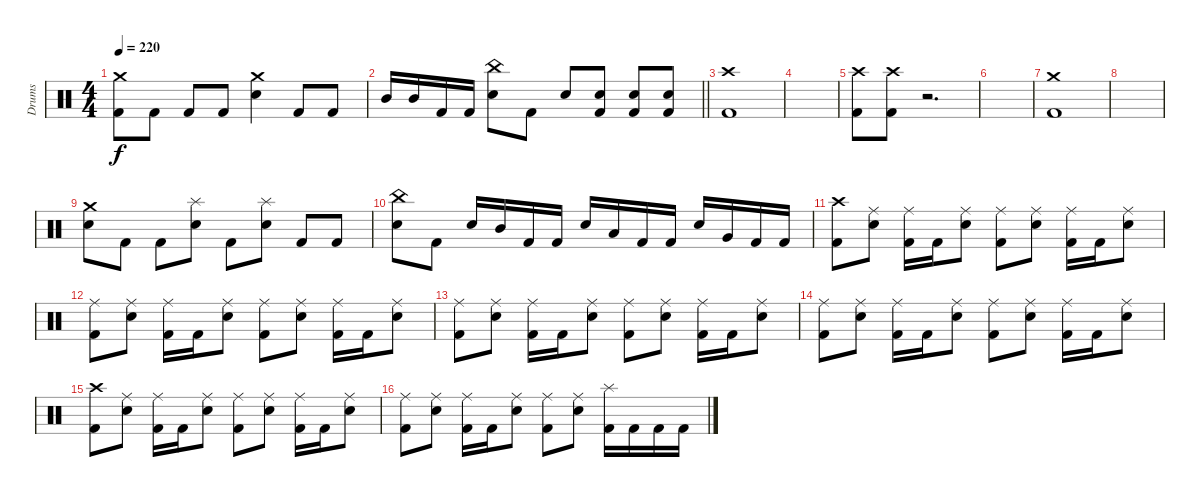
\track ("Drums" "Drums") {instrument percussion}
\staff {score}
\articulation defaults
\ts (4 4)
\tempo 220
\clef neutral
\ks c
("Crash medium (hit)" "Kick (hit) 2").8{dy f} "Kick (hit) 2".8 "Kick (hit) 2".8 "Kick (hit) 2".8 ("Crash medium (hit)" "Snare (hit) 2").4 "Kick (hit) 2".8 "Kick (hit) 2".8 |
\barLineRight lightlight "Mid Tom (hit)".16 "Mid Tom (hit)".16 "Kick (hit) 2".16 "Kick (hit) 2".16
("China (hit)" "Snare (hit) 2").8 "Kick (hit) 2".8 "Snare (hit) 2".8 ("Snare (hit) 2" "Kick (hit) 2").8 ("Snare (hit) 2" "Kick (hit) 2").8 ("Snare (hit) 2" "Kick (hit) 2").8 |
("Crash high (hit)" "Kick (hit) 2").1 |
|
("Crash high (hit)" "Kick (hit) 2").8 ("Crash high (hit)" "Kick (hit) 2").8 r.2{d} |
|
("Crash medium (hit)" "Kick (hit) 2").1 |
|
("Crash medium (hit)" "Snare (hit) 2").8 "Kick (hit) 2".8 "Kick (hit) 2".8 ("Splash (hit)" "Snare (hit) 2").8 "Kick (hit) 2".8 ("Splash (hit)" "Snare (hit) 2").8 "Kick (hit) 2".8 "Kick (hit) 2".8 |
("China (hit)" "Snare (hit) 2").8 "Kick (hit) 2".8 "Snare (hit) 2".16 "Mid Tom (hit)".16 "Kick (hit) 2".16 "Kick (hit) 2".16 "Snare (hit) 2".16 "Low Tom (hit)".16 "Kick (hit) 2".16 "Kick (hit) 2".16 "Snare (hit) 2".16 "Very Low Tom (hit)".16 "Kick (hit) 2".16 "Kick (hit) 2".16 |
("Crash high (hit)" "Kick (hit) 2").8 ("Ride (middle)" "Snare (hit) 2").8 ("Ride (middle)" "Kick (hit) 2").16 "Kick (hit) 2".16 ("Ride (middle)" "Snare (hit) 2").8 ("Ride (middle)" "Kick (hit) 2").8 ("Ride (middle)" "Snare (hit) 2").8 ("Ride (middle)" "Kick (hit) 2").16 "Kick (hit) 2".16 ("Ride (middle)" "Snare (hit) 2").8 |
("Ride (middle)" "Kick (hit) 2").8 ("Ride (middle)" "Snare (hit) 2").8 ("Ride (middle)" "Kick (hit) 2").16 "Kick (hit) 2".16 ("Ride (middle)" "Snare (hit) 2").8 ("Ride (middle)" "Kick (hit) 2").8 ("Ride (middle)" "Snare (hit) 2").8 ("Ride (middle)" "Kick (hit) 2").16 "Kick (hit) 2".16 ("Ride (middle)" "Snare (hit) 2").8 |
("Ride (middle)" "Kick (hit) 2").8 ("Ride (middle)" "Snare (hit) 2").8 ("Ride (middle)" "Kick (hit) 2").16 "Kick (hit) 2".16 ("Ride (middle)" "Snare (hit) 2").8 ("Ride (middle)" "Kick (hit) 2").8 ("Ride (middle)" "Snare (hit) 2").8 ("Ride (middle)" "Kick (hit) 2").16 "Kick (hit) 2".16 ("Ride (middle)" "Snare (hit) 2").8 |
("Ride (middle)" "Kick (hit) 2").8 ("Ride (middle)" "Snare (hit) 2").8 ("Ride (middle)" "Kick (hit) 2").16 "Kick (hit) 2".16 ("Ride (middle)" "Snare (hit) 2").8 ("Ride (middle)" "Kick (hit) 2").8 ("Ride (middle)" "Snare (hit) 2").8 ("Ride (middle)" "Kick (hit) 2").16 "Kick (hit) 2".16 ("Ride (middle)" "Snare (hit) 2").8 |
("Crash high (hit)" "Kick (hit) 2").8 ("Ride (middle)" "Snare (hit) 2").8 ("Ride (middle)" "Kick (hit) 2").16 "Kick (hit) 2".16 ("Ride (middle)" "Snare (hit) 2").8 ("Ride (middle)" "Kick (hit) 2").8 ("Ride (middle)" "Snare (hit) 2").8 ("Ride (middle)" "Kick (hit) 2").16 "Kick (hit) 2".16 ("Ride (middle)" "Snare (hit) 2").8 |
("Ride (middle)" "Kick (hit) 2").8 ("Ride (middle)" "Snare (hit) 2").8 ("Ride (middle)" "Kick (hit) 2").16 "Kick (hit) 2".16 ("Ride (middle)" "Snare (hit) 2").8 ("Ride (middle)" "Kick (hit) 2").8 ("Ride (middle)" "Snare (hit) 2").8 ("Splash (hit)" "Kick (hit) 2").16 "Kick (hit) 2".16 "Kick (hit) 2".16 "Kick (hit) 2".16
